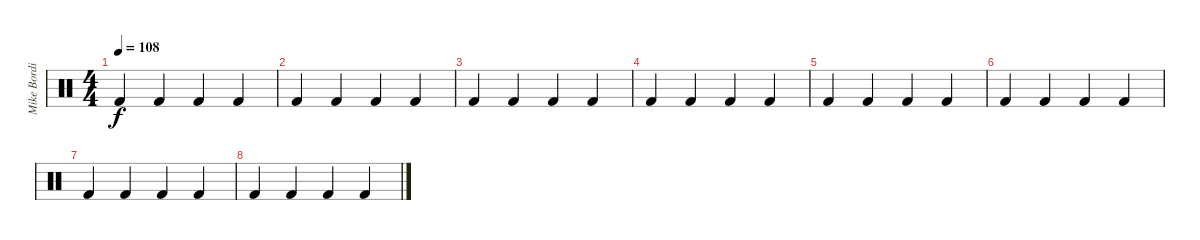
\track ("Mike Bordin" "Mike Bordi") {instrument percussion}
\staff {score}
\articulation defaults
\ts (4 4)
\tempo 108
\clef neutral
\ks c "Kick (hit) 2".4{dy f} "Kick (hit) 2".4 "Kick (hit) 2".4 "Kick (hit) 2".4
|
"Kick (hit) 2".4 "Kick (hit) 2".4 "Kick (hit) 2".4 "Kick (hit) 2".4 |
"Kick (hit) 2".4 "Kick (hit) 2".4 "Kick (hit) 2".4 "Kick (hit) 2".4 |
"Kick (hit) 2".4 "Kick (hit) 2".4 "Kick (hit) 2".4 "Kick (hit) 2".4 |
"Kick (hit) 2".4 "Kick (hit) 2".4 "Kick (hit) 2".4 "Kick (hit) 2".4 |
"Kick (hit) 2".4 "Kick (hit) 2".4 "Kick (hit) 2".4 "Kick (hit) 2".4 |
"Kick (hit) 2".4 "Kick (hit) 2".4 "Kick (hit) 2".4 "Kick (hit) 2".4 |
"Kick (hit) 2".4 "Kick (hit) 2".4 "Kick (hit) 2".4 "Kick (hit) 2".4
